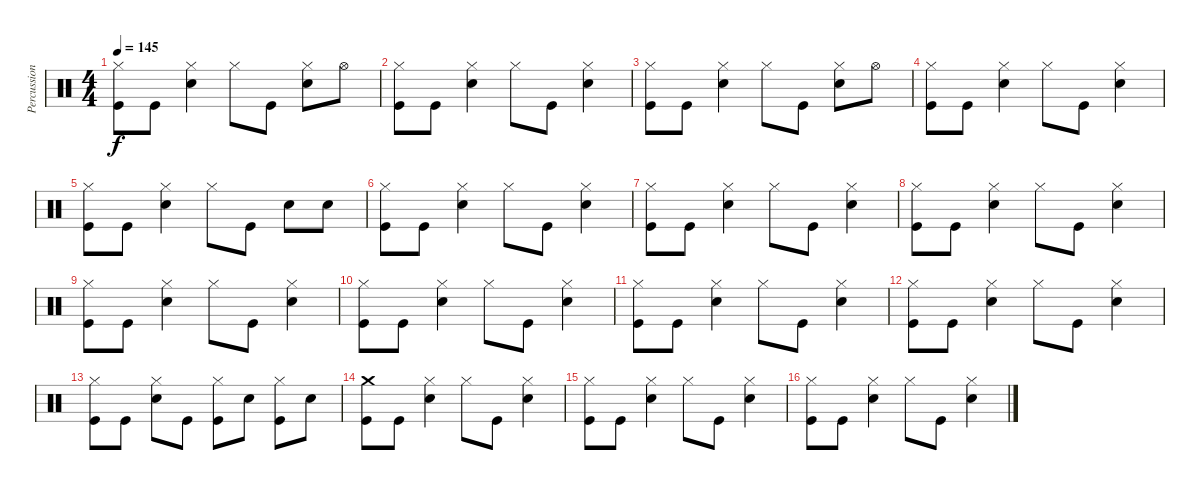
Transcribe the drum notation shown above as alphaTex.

\track ("Percussion" "Percussion") {instrument percussion}
\staff {score}
\articulation defaults
\ts (4 4)
\tempo 145
\clef neutral
\ks c
("Kick (hit)" "Hi-Hat (closed)").8{dy f} "Kick (hit)".8 ("Hi-Hat (closed)" "Snare (hit) 2").4 "Hi-Hat (closed)".8 "Kick (hit)".8 ("Hi-Hat (closed)" "Snare (hit) 2").8 "Hi-Hat (open)".8 |
("Kick (hit)" "Hi-Hat (closed)").8 "Kick (hit)".8 ("Hi-Hat (closed)" "Snare (hit) 2").4 "Hi-Hat (closed)".8 "Kick (hit)".8 ("Hi-Hat (closed)" "Snare (hit) 2").4 |
("Kick (hit)" "Hi-Hat (closed)").8 "Kick (hit)".8 ("Hi-Hat (closed)" "Snare (hit) 2").4 "Hi-Hat (closed)".8 "Kick (hit)".8 ("Hi-Hat (closed)" "Snare (hit) 2").8 "Hi-Hat (open)".8 |
("Kick (hit)" "Hi-Hat (closed)").8 "Kick (hit)".8 ("Hi-Hat (closed)" "Snare (hit) 2").4 "Hi-Hat (closed)".8 "Kick (hit)".8 ("Hi-Hat (closed)" "Snare (hit) 2").4 |
("Kick (hit)" "Hi-Hat (closed)").8 "Kick (hit)".8 ("Hi-Hat (closed)" "Snare (hit) 2").4 "Hi-Hat (closed)".8 "Kick (hit)".8 "Snare (hit) 2".8 "Snare (hit) 2".8 |
("Kick (hit)" "Hi-Hat (closed)").8 "Kick (hit)".8 ("Hi-Hat (closed)" "Snare (hit) 2").4 "Hi-Hat (closed)".8 "Kick (hit)".8 ("Hi-Hat (closed)" "Snare (hit) 2").4 |
("Kick (hit)" "Hi-Hat (closed)").8 "Kick (hit)".8 ("Hi-Hat (closed)" "Snare (hit) 2").4 "Hi-Hat (closed)".8 "Kick (hit)".8 ("Hi-Hat (closed)" "Snare (hit) 2").4 |
("Kick (hit)" "Hi-Hat (closed)").8 "Kick (hit)".8 ("Hi-Hat (closed)" "Snare (hit) 2").4 "Hi-Hat (closed)".8 "Kick (hit)".8 ("Hi-Hat (closed)" "Snare (hit) 2").4 |
("Kick (hit)" "Hi-Hat (closed)").8 "Kick (hit)".8 ("Hi-Hat (closed)" "Snare (hit) 2").4 "Hi-Hat (closed)".8 "Kick (hit)".8 ("Hi-Hat (closed)" "Snare (hit) 2").4 |
("Kick (hit)" "Hi-Hat (closed)").8 "Kick (hit)".8 ("Hi-Hat (closed)" "Snare (hit) 2").4 "Hi-Hat (closed)".8 "Kick (hit)".8 ("Hi-Hat (closed)" "Snare (hit) 2").4 |
("Kick (hit)" "Hi-Hat (closed)").8 "Kick (hit)".8 ("Hi-Hat (closed)" "Snare (hit) 2").4 "Hi-Hat (closed)".8 "Kick (hit)".8 ("Hi-Hat (closed)" "Snare (hit) 2").4 |
("Kick (hit)" "Hi-Hat (closed)").8 "Kick (hit)".8 ("Hi-Hat (closed)" "Snare (hit) 2").4 "Hi-Hat (closed)".8 "Kick (hit)".8 ("Hi-Hat (closed)" "Snare (hit) 2").4 |
("Kick (hit)" "Hi-Hat (closed)").8 "Kick (hit)".8 ("Hi-Hat (closed)" "Snare (hit) 2").8 "Kick (hit)".8 ("Kick (hit)" "Hi-Hat (closed)").8 "Snare (hit) 2".8 ("Kick (hit)" "Hi-Hat (closed)").8 "Snare (hit) 2".8 |
("Kick (hit)" "Crash medium (hit)").8 "Kick (hit)".8 ("Hi-Hat (closed)" "Snare (hit) 2").4 "Hi-Hat (closed)".8 "Kick (hit)".8 ("Hi-Hat (closed)" "Snare (hit) 2").4 |
("Kick (hit)" "Hi-Hat (closed)").8 "Kick (hit)".8 ("Hi-Hat (closed)" "Snare (hit) 2").4 "Hi-Hat (closed)".8 "Kick (hit)".8 ("Hi-Hat (closed)" "Snare (hit) 2").4 |
("Kick (hit)" "Hi-Hat (closed)").8 "Kick (hit)".8 ("Hi-Hat (closed)" "Snare (hit) 2").4 "Hi-Hat (closed)".8 "Kick (hit)".8 ("Hi-Hat (closed)" "Snare (hit) 2").4
